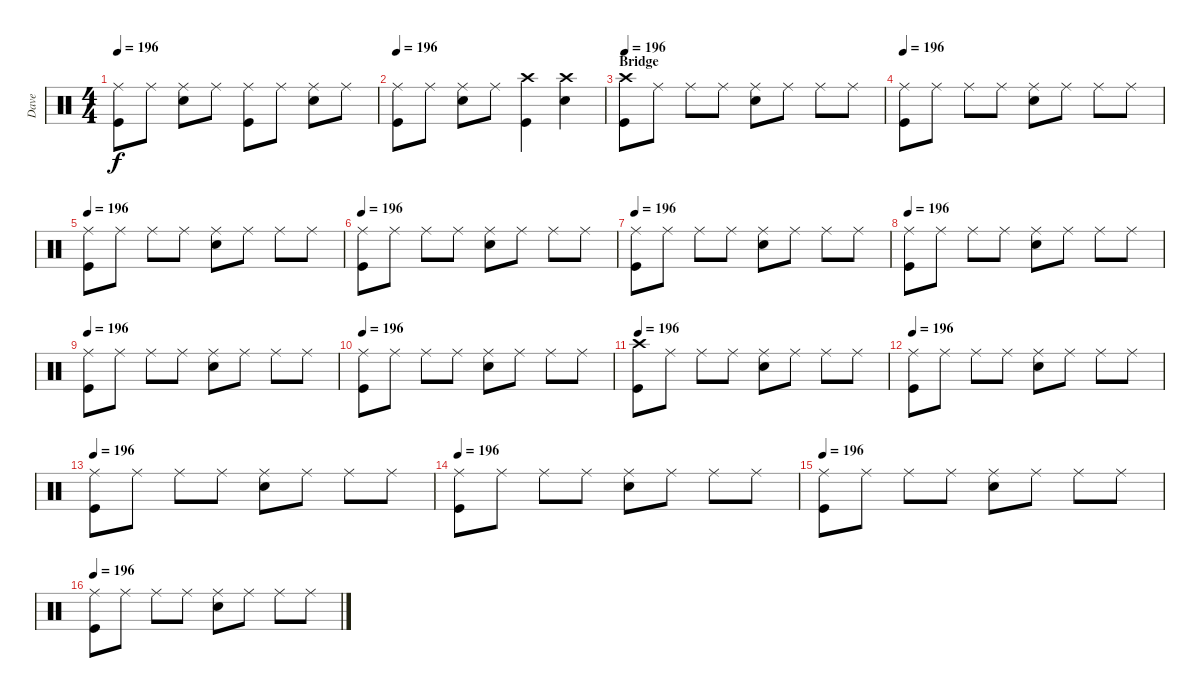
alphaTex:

\track ("Dave" "Dave") {instrument percussion}
\staff {score}
\articulation defaults
\ts (4 4)
\tempo 196
\clef neutral
\ks c
("Ride (middle)" "Kick (hit)").8{dy f} "Ride (middle)".8 ("Ride (middle)" "Snare (hit) 2").8 "Ride (middle)".8 ("Ride (middle)" "Kick (hit)").8 "Ride (middle)".8 ("Ride (middle)" "Snare (hit) 2").8 "Ride (middle)".8 |
\tempo 196
("Ride (middle)" "Kick (hit)").8 "Ride (middle)".8 ("Ride (middle)" "Snare (hit) 2").8 "Ride (middle)".8 ("Crash high (hit)" "Kick (hit)").4 ("Crash high (hit)" "Snare (hit) 2").4 |
\section ("" "Bridge")
\tempo 196
("Crash high (hit)" "Kick (hit)").8 "Ride (middle)".8 "Ride (middle)".8 "Ride (middle)".8 ("Ride (middle)" "Snare (hit) 2").8 "Ride (middle)".8 "Ride (middle)".8 "Ride (middle)".8 |
\tempo 196
("Ride (middle)" "Kick (hit)").8 "Ride (middle)".8 "Ride (middle)".8 "Ride (middle)".8 ("Ride (middle)" "Snare (hit) 2").8 "Ride (middle)".8 "Ride (middle)".8 "Ride (middle)".8 |
\tempo 196
("Ride (middle)" "Kick (hit)").8 "Ride (middle)".8 "Ride (middle)".8 "Ride (middle)".8 ("Ride (middle)" "Snare (hit) 2").8 "Ride (middle)".8 "Ride (middle)".8 "Ride (middle)".8 |
\tempo 196
("Ride (middle)" "Kick (hit)").8 "Ride (middle)".8 "Ride (middle)".8 "Ride (middle)".8 ("Ride (middle)" "Snare (hit) 2").8 "Ride (middle)".8 "Ride (middle)".8 "Ride (middle)".8 |
\tempo 196
("Ride (middle)" "Kick (hit)").8 "Ride (middle)".8 "Ride (middle)".8 "Ride (middle)".8 ("Ride (middle)" "Snare (hit) 2").8 "Ride (middle)".8 "Ride (middle)".8 "Ride (middle)".8 |
\tempo 196
("Ride (middle)" "Kick (hit)").8 "Ride (middle)".8 "Ride (middle)".8 "Ride (middle)".8 ("Ride (middle)" "Snare (hit) 2").8 "Ride (middle)".8 "Ride (middle)".8 "Ride (middle)".8 |
\tempo 196
("Ride (middle)" "Kick (hit)").8 "Ride (middle)".8 "Ride (middle)".8 "Ride (middle)".8 ("Ride (middle)" "Snare (hit) 2").8 "Ride (middle)".8 "Ride (middle)".8 "Ride (middle)".8 |
\tempo 196
("Ride (middle)" "Kick (hit)").8 "Ride (middle)".8 "Ride (middle)".8 "Ride (middle)".8 ("Ride (middle)" "Snare (hit) 2").8 "Ride (middle)".8 "Ride (middle)".8 "Ride (middle)".8 |
\tempo 196
("Crash high (hit)" "Kick (hit)").8 "Ride (middle)".8 "Ride (middle)".8 "Ride (middle)".8 ("Ride (middle)" "Snare (hit) 2").8 "Ride (middle)".8 "Ride (middle)".8 "Ride (middle)".8 |
\tempo 196
("Ride (middle)" "Kick (hit)").8 "Ride (middle)".8 "Ride (middle)".8 "Ride (middle)".8 ("Ride (middle)" "Snare (hit) 2").8 "Ride (middle)".8 "Ride (middle)".8 "Ride (middle)".8 |
\tempo 196
("Ride (middle)" "Kick (hit)").8 "Ride (middle)".8 "Ride (middle)".8 "Ride (middle)".8 ("Ride (middle)" "Snare (hit) 2").8 "Ride (middle)".8 "Ride (middle)".8 "Ride (middle)".8 |
\tempo 196
("Ride (middle)" "Kick (hit)").8 "Ride (middle)".8 "Ride (middle)".8 "Ride (middle)".8 ("Ride (middle)" "Snare (hit) 2").8 "Ride (middle)".8 "Ride (middle)".8 "Ride (middle)".8 |
\tempo 196
("Ride (middle)" "Kick (hit)").8 "Ride (middle)".8 "Ride (middle)".8 "Ride (middle)".8 ("Ride (middle)" "Snare (hit) 2").8 "Ride (middle)".8 "Ride (middle)".8 "Ride (middle)".8 |
\tempo 196
("Ride (middle)" "Kick (hit)").8 "Ride (middle)".8 "Ride (middle)".8 "Ride (middle)".8 ("Ride (middle)" "Snare (hit) 2").8 "Ride (middle)".8 "Ride (middle)".8 "Ride (middle)".8
